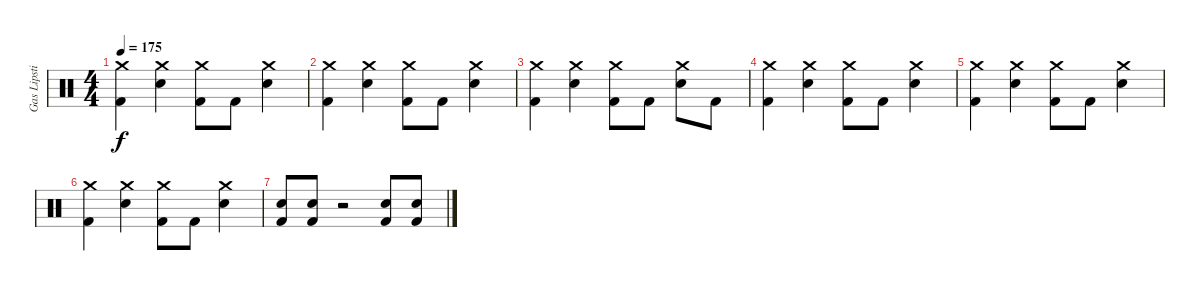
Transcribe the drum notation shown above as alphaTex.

\track ("Gas Lipstick" "Gas Lipsti") {instrument percussion}
\staff {score}
\articulation defaults
\ts (4 4)
\tempo 175
\clef neutral
\ks c
("Kick (hit) 2" "Crash medium (hit)").4{dy f} ("Snare (hit) 2" "Crash medium (hit)").4 ("Kick (hit) 2" "Crash medium (hit)").8 "Kick (hit) 2".8 ("Snare (hit) 2" "Crash medium (hit)").4 |
("Kick (hit) 2" "Crash medium (hit)").4 ("Snare (hit) 2" "Crash medium (hit)").4 ("Kick (hit) 2" "Crash medium (hit)").8 "Kick (hit) 2".8 ("Snare (hit) 2" "Crash medium (hit)").4 |
("Kick (hit) 2" "Crash medium (hit)").4 ("Snare (hit) 2" "Crash medium (hit)").4 ("Kick (hit) 2" "Crash medium (hit)").8 "Kick (hit) 2".8 ("Snare (hit) 2" "Crash medium (hit)").8 "Kick (hit) 2".8 |
("Kick (hit) 2" "Crash medium (hit)").4 ("Snare (hit) 2" "Crash medium (hit)").4 ("Kick (hit) 2" "Crash medium (hit)").8 "Kick (hit) 2".8 ("Snare (hit) 2" "Crash medium (hit)").4 |
("Kick (hit) 2" "Crash medium (hit)").4 ("Snare (hit) 2" "Crash medium (hit)").4 ("Kick (hit) 2" "Crash medium (hit)").8 "Kick (hit) 2".8 ("Snare (hit) 2" "Crash medium (hit)").4 |
("Kick (hit) 2" "Crash medium (hit)").4 ("Snare (hit) 2" "Crash medium (hit)").4 ("Kick (hit) 2" "Crash medium (hit)").8 "Kick (hit) 2".8 ("Snare (hit) 2" "Crash medium (hit)").4 |
("Kick (hit) 2" "Snare (hit) 2").8 ("Kick (hit) 2" "Snare (hit) 2").8 r.2 ("Kick (hit) 2" "Snare (hit) 2").8 ("Kick (hit) 2" "Snare (hit) 2").8
